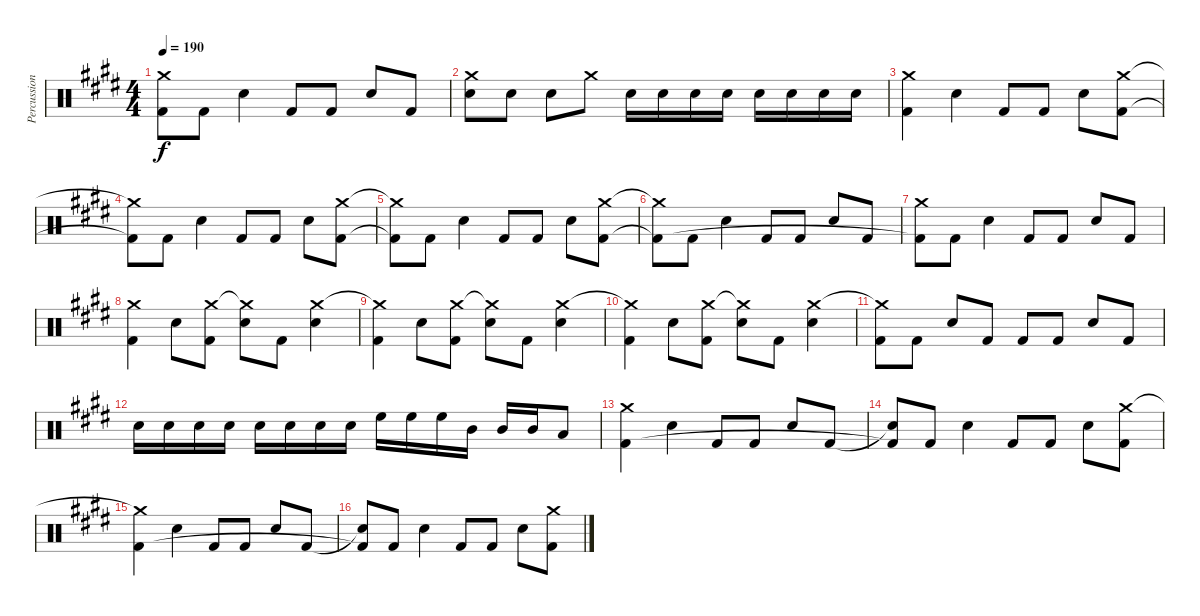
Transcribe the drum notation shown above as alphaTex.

\track ("Percussion" "Percussion") {instrument percussion}
\staff {score}
\articulation defaults
\ts (4 4)
\tempo 190
\clef neutral
\ks e
("Crash medium (hit)" "Kick (hit) 2"{t}).8{dy f} "Kick (hit) 2".8 "Snare (hit) 2".4 "Kick (hit) 2".8 "Kick (hit) 2".8 "Snare (hit) 2".8 "Kick (hit) 2".8 |
("Crash medium (hit)" "Snare (hit) 2").8 "Snare (hit) 2".8 "Snare (hit) 2".8 "Crash medium (hit)".8 "Snare (hit) 2".16 "Snare (hit) 2".16 "Snare (hit) 2".16 "Snare (hit) 2".16 "Snare (hit) 2".16 "Snare (hit) 2".16 "Snare (hit) 2".16 "Snare (hit) 2".16 |
("Crash medium (hit)" "Kick (hit) 2").4 "Snare (hit) 2".4 "Kick (hit) 2".8 "Kick (hit) 2".8 "Snare (hit) 2".8 ("Crash medium (hit)" "Kick (hit) 2").8 |
("Crash medium (hit)"{t} "Kick (hit) 2"{t}).8 "Kick (hit) 2".8 "Snare (hit) 2".4 "Kick (hit) 2".8 "Kick (hit) 2".8 "Snare (hit) 2".8 ("Crash medium (hit)" "Kick (hit) 2").8 |
("Crash medium (hit)"{t} "Kick (hit) 2"{t}).8 "Kick (hit) 2".8 "Snare (hit) 2".4 "Kick (hit) 2".8 "Kick (hit) 2".8 "Snare (hit) 2".8 ("Crash medium (hit)" "Kick (hit) 2").8 |
("Crash medium (hit)"{t} "Kick (hit) 2"{t}).8 "Kick (hit) 2".8 "Snare (hit) 2".4 "Kick (hit) 2".8 "Kick (hit) 2".8 "Snare (hit) 2".8 "Kick (hit) 2".8 |
("Crash medium (hit)" "Kick (hit) 2"{t}).8 "Kick (hit) 2".8 "Snare (hit) 2".4 "Kick (hit) 2".8 "Kick (hit) 2".8 "Snare (hit) 2".8 "Kick (hit) 2".8 |
("Crash medium (hit)" "Kick (hit) 2").4 "Snare (hit) 2".8 ("Crash medium (hit)" "Kick (hit) 2").8 ("Crash medium (hit)"{t} "Snare (hit) 2").8 "Kick (hit) 2".8 ("Crash medium (hit)" "Snare (hit) 2").4 |
("Crash medium (hit)"{t} "Kick (hit) 2").4 "Snare (hit) 2".8 ("Crash medium (hit)" "Kick (hit) 2").8 ("Crash medium (hit)"{t} "Snare (hit) 2").8 "Kick (hit) 2".8 ("Crash medium (hit)" "Snare (hit) 2").4 |
("Crash medium (hit)"{t} "Kick (hit) 2").4 "Snare (hit) 2".8 ("Crash medium (hit)" "Kick (hit) 2").8 ("Crash medium (hit)"{t} "Snare (hit) 2").8 "Kick (hit) 2".8 ("Crash medium (hit)" "Snare (hit) 2").4 |
("Crash medium (hit)"{t} "Kick (hit) 2").8 "Kick (hit) 2".8 "Snare (hit) 2".8 "Kick (hit) 2".8 "Kick (hit) 2".8 "Kick (hit) 2".8 "Snare (hit) 2".8 "Kick (hit) 2".8 |
"Snare (hit) 2".16 "Snare (hit) 2".16 "Snare (hit) 2".16 "Snare (hit) 2".16 "Snare (hit) 2".16 "Snare (hit) 2".16 "Snare (hit) 2".16 "Snare (hit) 2".16 "High Floor Tom (hit)".16 "High Floor Tom (hit)".16 "High Floor Tom (hit)".16 "Mid Tom (hit)".16 "Mid Tom (hit)".16 "Mid Tom (hit)".16 "Low Floor Tom (hit)".8 |
("Crash medium (hit)" "Kick (hit) 2").4 "Snare (hit) 2".4 "Kick (hit) 2".8 "Kick (hit) 2".8 "Snare (hit) 2".8 "Kick (hit) 2".8 |
("Snare (hit)"{t} "Kick (hit) 2"{t}).8 "Kick (hit) 2".8 "Snare (hit) 2".4 "Kick (hit) 2".8 "Kick (hit) 2".8 "Snare (hit) 2".8 ("Crash medium (hit)" "Kick (hit) 2").8 |
("Crash medium (hit)"{t} "Kick (hit) 2").4 "Snare (hit) 2".4 "Kick (hit) 2".8 "Kick (hit) 2".8 "Snare (hit) 2".8 "Kick (hit) 2".8 |
("Snare (hit)"{t} "Kick (hit) 2"{t}).8 "Kick (hit) 2".8 "Snare (hit) 2".4 "Kick (hit) 2".8 "Kick (hit) 2".8 "Snare (hit) 2".8 ("Crash medium (hit)" "Kick (hit) 2").8
